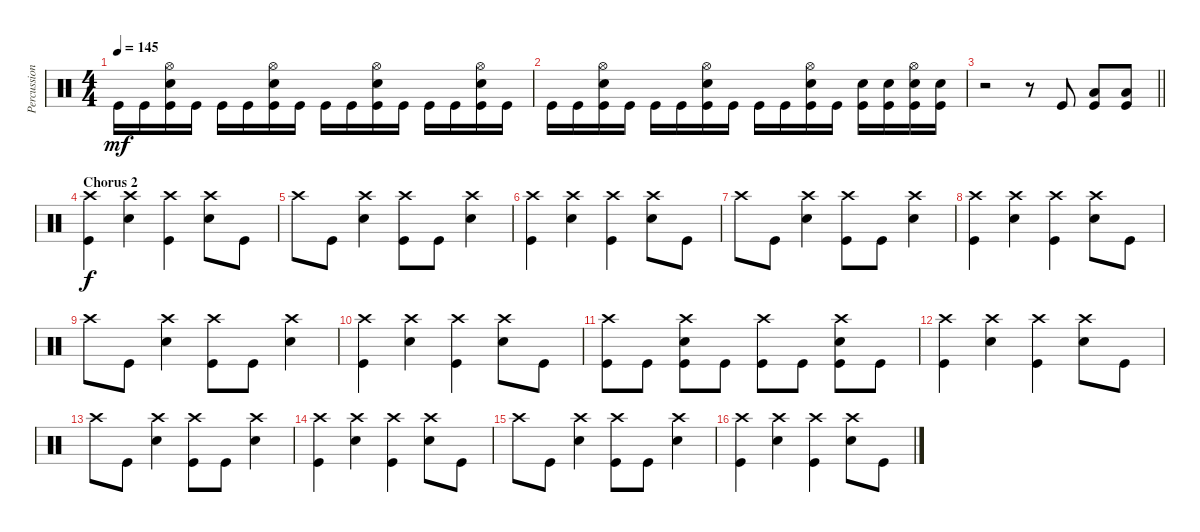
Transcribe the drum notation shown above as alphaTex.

\track ("Percussion" "Percussion") {instrument percussion}
\staff {score}
\articulation defaults
\ts (4 4)
\tempo 145
\clef neutral
\ks c "Kick (hit)".16{dy mf} "Kick (hit)".16
("Snare (hit) 2" "Hi-Hat (open)" "Kick (hit)").16 "Kick (hit)".16 "Kick (hit)".16 "Kick (hit)".16 ("Snare (hit) 2" "Hi-Hat (open)" "Kick (hit)").16 "Kick (hit)".16 "Kick (hit)".16 "Kick (hit)".16 ("Snare (hit) 2" "Hi-Hat (open)" "Kick (hit)").16 "Kick (hit)".16 "Kick (hit)".16 "Kick (hit)".16 ("Snare (hit) 2" "Hi-Hat (open)" "Kick (hit)").16 "Kick (hit)".16 |
"Kick (hit)".16 "Kick (hit)".16 ("Snare (hit) 2" "Hi-Hat (open)" "Kick (hit)").16 "Kick (hit)".16 "Kick (hit)".16 "Kick (hit)".16 ("Snare (hit) 2" "Hi-Hat (open)" "Kick (hit)").16 "Kick (hit)".16 "Kick (hit)".16 "Kick (hit)".16 ("Snare (hit) 2" "Hi-Hat (open)" "Kick (hit)").16 "Kick (hit)".16 ("Snare (hit) 2" "Kick (hit)").16 ("Snare (hit) 2" "Kick (hit)").16 ("Snare (hit) 2" "Hi-Hat (open)" "Kick (hit)").16 ("Snare (hit) 2" "Kick (hit)").16 |
\barLineRight lightlight
r.2 r.8 "Kick (hit)".8 ("Low Floor Tom (hit)" "Kick (hit)").8 ("Low Floor Tom (hit)" "Kick (hit)").8 |
\section ("" "Chorus 2")
("Crash high (hit)" "Kick (hit)").4{dy f} ("Crash high (hit)" "Snare (hit) 2").4 ("Crash high (hit)" "Kick (hit)").4 ("Crash high (hit)" "Snare (hit) 2").8 "Kick (hit)".8 |
"Crash high (hit)".8 "Kick (hit)".8 ("Crash high (hit)" "Snare (hit) 2").4 ("Crash high (hit)" "Kick (hit)").8 "Kick (hit)".8 ("Crash high (hit)" "Snare (hit) 2").4 |
("Crash high (hit)" "Kick (hit)").4 ("Crash high (hit)" "Snare (hit) 2").4 ("Crash high (hit)" "Kick (hit)").4 ("Crash high (hit)" "Snare (hit) 2").8 "Kick (hit)".8 |
"Crash high (hit)".8 "Kick (hit)".8 ("Crash high (hit)" "Snare (hit) 2").4 ("Crash high (hit)" "Kick (hit)").8 "Kick (hit)".8 ("Crash high (hit)" "Snare (hit) 2").4 |
("Crash high (hit)" "Kick (hit)").4 ("Crash high (hit)" "Snare (hit) 2").4 ("Crash high (hit)" "Kick (hit)").4 ("Crash high (hit)" "Snare (hit) 2").8 "Kick (hit)".8 |
"Crash high (hit)".8 "Kick (hit)".8 ("Crash high (hit)" "Snare (hit) 2").4 ("Crash high (hit)" "Kick (hit)").8 "Kick (hit)".8 ("Crash high (hit)" "Snare (hit) 2").4 |
("Crash high (hit)" "Kick (hit)").4 ("Crash high (hit)" "Snare (hit) 2").4 ("Crash high (hit)" "Kick (hit)").4 ("Crash high (hit)" "Snare (hit) 2").8 "Kick (hit)".8 |
("Crash high (hit)" "Kick (hit)").8 "Kick (hit)".8 ("Crash high (hit)" "Snare (hit) 2" "Kick (hit)").8 "Kick (hit)".8 ("Crash high (hit)" "Kick (hit)").8 "Kick (hit)".8 ("Crash high (hit)" "Snare (hit) 2" "Kick (hit)").8 "Kick (hit)".8 |
("Crash high (hit)" "Kick (hit)").4 ("Crash high (hit)" "Snare (hit) 2").4 ("Crash high (hit)" "Kick (hit)").4 ("Crash high (hit)" "Snare (hit) 2").8 "Kick (hit)".8 |
"Crash high (hit)".8 "Kick (hit)".8 ("Crash high (hit)" "Snare (hit) 2").4 ("Crash high (hit)" "Kick (hit)").8 "Kick (hit)".8 ("Crash high (hit)" "Snare (hit) 2").4 |
("Crash high (hit)" "Kick (hit)").4 ("Crash high (hit)" "Snare (hit) 2").4 ("Crash high (hit)" "Kick (hit)").4 ("Crash high (hit)" "Snare (hit) 2").8 "Kick (hit)".8 |
"Crash high (hit)".8 "Kick (hit)".8 ("Crash high (hit)" "Snare (hit) 2").4 ("Crash high (hit)" "Kick (hit)").8 "Kick (hit)".8 ("Crash high (hit)" "Snare (hit) 2").4 |
("Crash high (hit)" "Kick (hit)").4 ("Crash high (hit)" "Snare (hit) 2").4 ("Crash high (hit)" "Kick (hit)").4 ("Crash high (hit)" "Snare (hit) 2").8 "Kick (hit)".8
